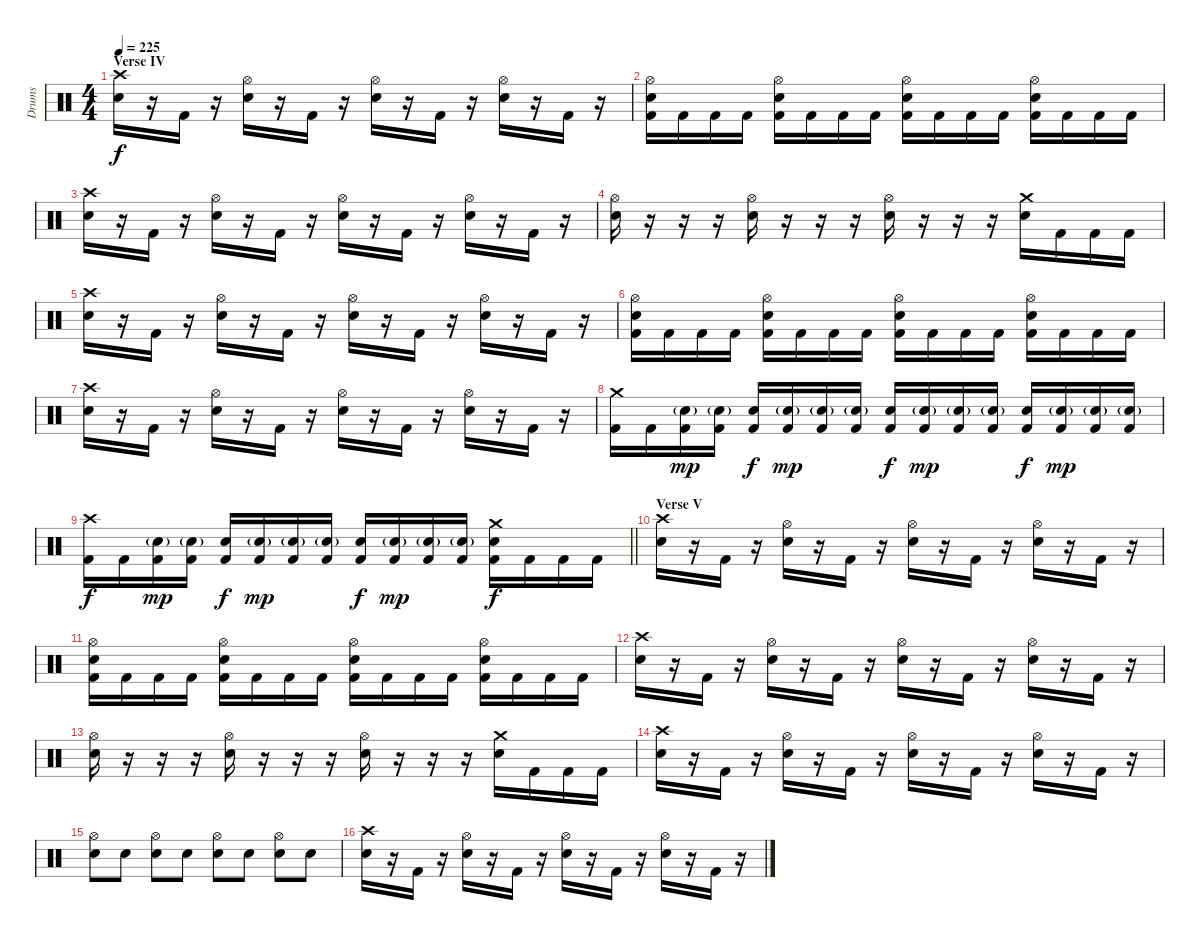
\track ("Drums" "Drums") {instrument percussion}
\staff {score}
\articulation defaults
\ts (4 4)
\section ("" "Verse IV")
\tempo 225
\clef neutral
\ks c
("Crash high (hit)" "Electric Snare (hit)").16{dy f} r.16 "Kick (hit) 2".16 r.16 ("Hi-Hat (open)" "Electric Snare (hit)").16 r.16 "Kick (hit) 2".16 r.16 ("Hi-Hat (open)" "Electric Snare (hit)").16 r.16 "Kick (hit) 2".16 r.16 ("Hi-Hat (open)" "Electric Snare (hit)").16 r.16 "Kick (hit) 2".16 r.16 |
("Hi-Hat (open)" "Electric Snare (hit)" "Kick (hit) 2").16 "Kick (hit) 2".16 "Kick (hit) 2".16 "Kick (hit) 2".16 ("Hi-Hat (open)" "Electric Snare (hit)" "Kick (hit) 2").16 "Kick (hit) 2".16 "Kick (hit) 2".16 "Kick (hit) 2".16 ("Hi-Hat (open)" "Electric Snare (hit)" "Kick (hit) 2").16 "Kick (hit) 2".16 "Kick (hit) 2".16 "Kick (hit) 2".16 ("Hi-Hat (open)" "Electric Snare (hit)" "Kick (hit) 2").16 "Kick (hit) 2".16 "Kick (hit) 2".16 "Kick (hit) 2".16 |
("Crash high (hit)" "Electric Snare (hit)").16 r.16 "Kick (hit) 2".16 r.16 ("Hi-Hat (open)" "Electric Snare (hit)").16 r.16 "Kick (hit) 2".16 r.16 ("Hi-Hat (open)" "Electric Snare (hit)").16 r.16 "Kick (hit) 2".16 r.16 ("Hi-Hat (open)" "Electric Snare (hit)").16 r.16 "Kick (hit) 2".16 r.16 |
("Hi-Hat (open)" "Electric Snare (hit)").16 r.16 r.16 r.16 ("Hi-Hat (open)" "Electric Snare (hit)").16 r.16 r.16 r.16 ("Hi-Hat (open)" "Electric Snare (hit)").16 r.16 r.16 r.16 ("Crash medium (hit)" "Electric Snare (hit)").16 "Kick (hit) 2".16 "Kick (hit) 2".16 "Kick (hit) 2".16 |
("Crash high (hit)" "Electric Snare (hit)").16 r.16 "Kick (hit) 2".16 r.16 ("Hi-Hat (open)" "Electric Snare (hit)").16 r.16 "Kick (hit) 2".16 r.16 ("Hi-Hat (open)" "Electric Snare (hit)").16 r.16 "Kick (hit) 2".16 r.16 ("Hi-Hat (open)" "Electric Snare (hit)").16 r.16 "Kick (hit) 2".16 r.16 |
("Hi-Hat (open)" "Electric Snare (hit)" "Kick (hit) 2").16 "Kick (hit) 2".16 "Kick (hit) 2".16 "Kick (hit) 2".16 ("Hi-Hat (open)" "Electric Snare (hit)" "Kick (hit) 2").16 "Kick (hit) 2".16 "Kick (hit) 2".16 "Kick (hit) 2".16 ("Hi-Hat (open)" "Electric Snare (hit)" "Kick (hit) 2").16 "Kick (hit) 2".16 "Kick (hit) 2".16 "Kick (hit) 2".16 ("Hi-Hat (open)" "Electric Snare (hit)" "Kick (hit) 2").16 "Kick (hit) 2".16 "Kick (hit) 2".16 "Kick (hit) 2".16 |
("Crash high (hit)" "Electric Snare (hit)").16 r.16 "Kick (hit) 2".16 r.16 ("Hi-Hat (open)" "Electric Snare (hit)").16 r.16 "Kick (hit) 2".16 r.16 ("Hi-Hat (open)" "Electric Snare (hit)").16 r.16 "Kick (hit) 2".16 r.16 ("Hi-Hat (open)" "Electric Snare (hit)").16 r.16 "Kick (hit) 2".16 r.16 |
("Crash medium (hit)" "Kick (hit) 2").16 "Kick (hit) 2".16 ("Electric Snare (hit)"{g} "Kick (hit) 2").16{dy mp} ("Electric Snare (hit)"{g} "Kick (hit) 2").16 ("Electric Snare (hit)" "Kick (hit) 2").16{dy f} ("Electric Snare (hit)"{g} "Kick (hit) 2").16{dy mp} ("Electric Snare (hit)"{g} "Kick (hit) 2").16 ("Electric Snare (hit)"{g} "Kick (hit) 2").16 ("Electric Snare (hit)" "Kick (hit) 2").16{dy f} ("Electric Snare (hit)"{g} "Kick (hit) 2").16{dy mp} ("Electric Snare (hit)"{g} "Kick (hit) 2").16 ("Electric Snare (hit)"{g} "Kick (hit) 2").16 ("Electric Snare (hit)" "Kick (hit) 2").16{dy f} ("Electric Snare (hit)"{g} "Kick (hit) 2").16{dy mp} ("Electric Snare (hit)"{g} "Kick (hit) 2").16 ("Electric Snare (hit)"{g} "Kick (hit) 2").16 |
\barLineRight lightlight
("Crash high (hit)" "Kick (hit) 2").16{dy f} "Kick (hit) 2".16 ("Electric Snare (hit)"{g} "Kick (hit) 2").16{dy mp} ("Electric Snare (hit)"{g} "Kick (hit) 2").16 ("Electric Snare (hit)" "Kick (hit) 2").16{dy f} ("Electric Snare (hit)"{g} "Kick (hit) 2").16{dy mp} ("Electric Snare (hit)"{g} "Kick (hit) 2").16 ("Electric Snare (hit)"{g} "Kick (hit) 2").16 ("Electric Snare (hit)" "Kick (hit) 2").16{dy f} ("Electric Snare (hit)"{g} "Kick (hit) 2").16{dy mp} ("Electric Snare (hit)"{g} "Kick (hit) 2").16 ("Electric Snare (hit)"{g} "Kick (hit) 2").16 ("Crash medium (hit)" "Electric Snare (hit)" "Kick (hit) 2").16{dy f} "Kick (hit) 2".16 "Kick (hit) 2".16 "Kick (hit) 2".16 |
\section ("" "Verse V")
("Crash high (hit)" "Electric Snare (hit)").16 r.16 "Kick (hit) 2".16 r.16 ("Hi-Hat (open)" "Electric Snare (hit)").16 r.16 "Kick (hit) 2".16 r.16 ("Hi-Hat (open)" "Electric Snare (hit)").16 r.16 "Kick (hit) 2".16 r.16 ("Hi-Hat (open)" "Electric Snare (hit)").16 r.16 "Kick (hit) 2".16 r.16 |
("Hi-Hat (open)" "Electric Snare (hit)" "Kick (hit) 2").16 "Kick (hit) 2".16 "Kick (hit) 2".16 "Kick (hit) 2".16 ("Hi-Hat (open)" "Electric Snare (hit)" "Kick (hit) 2").16 "Kick (hit) 2".16 "Kick (hit) 2".16 "Kick (hit) 2".16 ("Hi-Hat (open)" "Electric Snare (hit)" "Kick (hit) 2").16 "Kick (hit) 2".16 "Kick (hit) 2".16 "Kick (hit) 2".16 ("Hi-Hat (open)" "Electric Snare (hit)" "Kick (hit) 2").16 "Kick (hit) 2".16 "Kick (hit) 2".16 "Kick (hit) 2".16 |
("Crash high (hit)" "Electric Snare (hit)").16 r.16 "Kick (hit) 2".16 r.16 ("Hi-Hat (open)" "Electric Snare (hit)").16 r.16 "Kick (hit) 2".16 r.16 ("Hi-Hat (open)" "Electric Snare (hit)").16 r.16 "Kick (hit) 2".16 r.16 ("Hi-Hat (open)" "Electric Snare (hit)").16 r.16 "Kick (hit) 2".16 r.16 |
("Hi-Hat (open)" "Electric Snare (hit)").16 r.16 r.16 r.16 ("Hi-Hat (open)" "Electric Snare (hit)").16 r.16 r.16 r.16 ("Hi-Hat (open)" "Electric Snare (hit)").16 r.16 r.16 r.16 ("Crash medium (hit)" "Electric Snare (hit)").16 "Kick (hit) 2".16 "Kick (hit) 2".16 "Kick (hit) 2".16 |
("Crash high (hit)" "Electric Snare (hit)").16 r.16 "Kick (hit) 2".16 r.16 ("Hi-Hat (open)" "Electric Snare (hit)").16 r.16 "Kick (hit) 2".16 r.16 ("Hi-Hat (open)" "Electric Snare (hit)").16 r.16 "Kick (hit) 2".16 r.16 ("Hi-Hat (open)" "Electric Snare (hit)").16 r.16 "Kick (hit) 2".16 r.16 |
("Hi-Hat (open)" "Electric Snare (hit)").8 "Electric Snare (hit)".8 ("Hi-Hat (open)" "Electric Snare (hit)").8 "Electric Snare (hit)".8 ("Hi-Hat (open)" "Electric Snare (hit)").8 "Electric Snare (hit)".8 ("Hi-Hat (open)" "Electric Snare (hit)").8 "Electric Snare (hit)".8 |
("Crash high (hit)" "Electric Snare (hit)").16 r.16 "Kick (hit) 2".16 r.16 ("Hi-Hat (open)" "Electric Snare (hit)").16 r.16 "Kick (hit) 2".16 r.16 ("Hi-Hat (open)" "Electric Snare (hit)").16 r.16 "Kick (hit) 2".16 r.16 ("Hi-Hat (open)" "Electric Snare (hit)").16 r.16 "Kick (hit) 2".16 r.16
